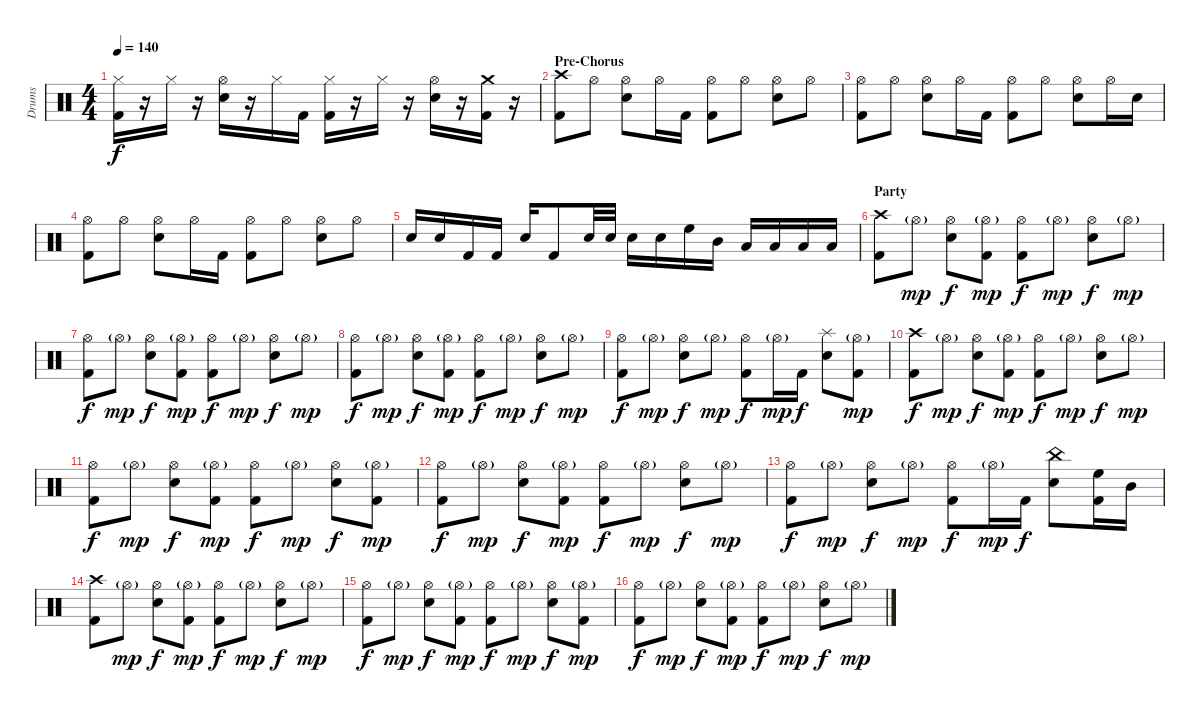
\track ("Drums" "Drums") {instrument percussion}
\staff {score}
\articulation defaults
\ts (4 4)
\tempo 140
\clef neutral
\ks c
("Hi-Hat (closed)" "Kick (hit) 2").16{dy f} r.16 "Hi-Hat (closed)".16 r.16 ("Hi-Hat (open)" "Electric Snare (hit)").16 r.16 "Hi-Hat (closed)".16 "Kick (hit) 2".16 ("Hi-Hat (closed)" "Kick (hit) 2").16 r.16 "Hi-Hat (closed)".16 r.16 ("Hi-Hat (open)" "Electric Snare (hit)").16 r.16 ("Crash medium (hit)" "Kick (hit) 2").16 r.16 |
\section ("" "Pre-Chorus")
("Crash high (hit)" "Kick (hit) 2").8 "Hi-Hat (open)".8 ("Hi-Hat (open)" "Electric Snare (hit)").8 "Hi-Hat (open)".16 "Kick (hit) 2".16 ("Hi-Hat (open)" "Kick (hit) 2").8 "Hi-Hat (open)".8 ("Hi-Hat (open)" "Electric Snare (hit)").8 "Hi-Hat (open)".8 |
("Hi-Hat (open)" "Kick (hit) 2").8 "Hi-Hat (open)".8 ("Hi-Hat (open)" "Electric Snare (hit)").8 "Hi-Hat (open)".16 "Kick (hit) 2".16 ("Hi-Hat (open)" "Kick (hit) 2").8 "Hi-Hat (open)".8 ("Hi-Hat (open)" "Electric Snare (hit)").8 "Hi-Hat (open)".16 "Electric Snare (hit)".16 |
("Hi-Hat (open)" "Kick (hit) 2").8 "Hi-Hat (open)".8 ("Hi-Hat (open)" "Electric Snare (hit)").8 "Hi-Hat (open)".16 "Kick (hit) 2".16 ("Hi-Hat (open)" "Kick (hit) 2").8 "Hi-Hat (open)".8 ("Hi-Hat (open)" "Electric Snare (hit)").8 "Hi-Hat (open)".8 |
"Electric Snare (hit)".16 "Electric Snare (hit)".16 "Kick (hit) 2".16 "Kick (hit) 2".16 "Electric Snare (hit)".16 "Kick (hit) 2".8 "Electric Snare (hit)".32 "Electric Snare (hit)".32 "Electric Snare (hit)".16 "Electric Snare (hit)".16 "High Floor Tom (hit)".16 "Mid Tom (hit)".16 "Low Tom (hit)".16 "Low Tom (hit)".16 "Low Floor Tom (hit)".16 "Low Floor Tom (hit)".16 |
\section ("" "Party")
("Crash high (hit)" "Kick (hit) 2").8 "Hi-Hat (open)"{g}.8{dy mp} ("Hi-Hat (open)" "Electric Snare (hit)").8{dy f} ("Hi-Hat (open)"{g} "Kick (hit) 2").8{dy mp} ("Hi-Hat (open)" "Kick (hit) 2").8{dy f} "Hi-Hat (open)"{g}.8{dy mp} ("Hi-Hat (open)" "Electric Snare (hit)").8{dy f} "Hi-Hat (open)"{g}.8{dy mp} |
("Hi-Hat (open)" "Kick (hit) 2").8{dy f} "Hi-Hat (open)"{g}.8{dy mp} ("Hi-Hat (open)" "Electric Snare (hit)").8{dy f} ("Hi-Hat (open)"{g} "Kick (hit) 2").8{dy mp} ("Hi-Hat (open)" "Kick (hit) 2").8{dy f} "Hi-Hat (open)"{g}.8{dy mp} ("Hi-Hat (open)" "Electric Snare (hit)").8{dy f} "Hi-Hat (open)"{g}.8{dy mp} |
("Hi-Hat (open)" "Kick (hit) 2").8{dy f} "Hi-Hat (open)"{g}.8{dy mp} ("Hi-Hat (open)" "Electric Snare (hit)").8{dy f} ("Hi-Hat (open)"{g} "Kick (hit) 2").8{dy mp} ("Hi-Hat (open)" "Kick (hit) 2").8{dy f} "Hi-Hat (open)"{g}.8{dy mp} ("Hi-Hat (open)" "Electric Snare (hit)").8{dy f} "Hi-Hat (open)"{g}.8{dy mp} |
("Hi-Hat (open)" "Kick (hit) 2").8{dy f} "Hi-Hat (open)"{g}.8{dy mp} ("Hi-Hat (open)" "Electric Snare (hit)").8{dy f} "Hi-Hat (open)"{g}.8{dy mp} ("Hi-Hat (open)" "Kick (hit) 2").8{dy f} "Hi-Hat (open)"{g}.16{dy mp} "Kick (hit) 2".16{dy f} ("Splash (hit)" "Electric Snare (hit)").8 ("Hi-Hat (open)"{g} "Kick (hit) 2").8{dy mp} |
("Crash high (hit)" "Kick (hit) 2").8{dy f} "Hi-Hat (open)"{g}.8{dy mp} ("Hi-Hat (open)" "Electric Snare (hit)").8{dy f} ("Hi-Hat (open)"{g} "Kick (hit) 2").8{dy mp} ("Hi-Hat (open)" "Kick (hit) 2").8{dy f} "Hi-Hat (open)"{g}.8{dy mp} ("Hi-Hat (open)" "Electric Snare (hit)").8{dy f} "Hi-Hat (open)"{g}.8{dy mp} |
("Hi-Hat (open)" "Kick (hit) 2").8{dy f} "Hi-Hat (open)"{g}.8{dy mp} ("Hi-Hat (open)" "Electric Snare (hit)").8{dy f} ("Hi-Hat (open)"{g} "Kick (hit) 2").8{dy mp} ("Hi-Hat (open)" "Kick (hit) 2").8{dy f} "Hi-Hat (open)"{g}.8{dy mp} ("Hi-Hat (open)" "Electric Snare (hit)").8{dy f} ("Hi-Hat (open)"{g} "Kick (hit) 2").8{dy mp} |
("Hi-Hat (open)" "Kick (hit) 2").8{dy f} "Hi-Hat (open)"{g}.8{dy mp} ("Hi-Hat (open)" "Electric Snare (hit)").8{dy f} ("Hi-Hat (open)"{g} "Kick (hit) 2").8{dy mp} ("Hi-Hat (open)" "Kick (hit) 2").8{dy f} "Hi-Hat (open)"{g}.8{dy mp} ("Hi-Hat (open)" "Electric Snare (hit)").8{dy f} "Hi-Hat (open)"{g}.8{dy mp} |
("Hi-Hat (open)" "Kick (hit) 2").8{dy f} "Hi-Hat (open)"{g}.8{dy mp} ("Hi-Hat (open)" "Electric Snare (hit)").8{dy f} "Hi-Hat (open)"{g}.8{dy mp} ("Hi-Hat (open)" "Kick (hit) 2").8{dy f} "Hi-Hat (open)"{g}.16{dy mp} "Kick (hit) 2".16{dy f} ("China (hit)" "Electric Snare (hit)").8 ("High Floor Tom (hit)" "Kick (hit) 2").16 "Mid Tom (hit)".16 |
("Crash high (hit)" "Kick (hit) 2").8 "Hi-Hat (open)"{g}.8{dy mp} ("Hi-Hat (open)" "Electric Snare (hit)").8{dy f} ("Hi-Hat (open)"{g} "Kick (hit) 2").8{dy mp} ("Hi-Hat (open)" "Kick (hit) 2").8{dy f} "Hi-Hat (open)"{g}.8{dy mp} ("Hi-Hat (open)" "Electric Snare (hit)").8{dy f} "Hi-Hat (open)"{g}.8{dy mp} |
("Hi-Hat (open)" "Kick (hit) 2").8{dy f} "Hi-Hat (open)"{g}.8{dy mp} ("Hi-Hat (open)" "Electric Snare (hit)").8{dy f} ("Hi-Hat (open)"{g} "Kick (hit) 2").8{dy mp} ("Hi-Hat (open)" "Kick (hit) 2").8{dy f} "Hi-Hat (open)"{g}.8{dy mp} ("Hi-Hat (open)" "Electric Snare (hit)").8{dy f} ("Hi-Hat (open)"{g} "Kick (hit) 2").8{dy mp} |
("Hi-Hat (open)" "Kick (hit) 2").8{dy f} "Hi-Hat (open)"{g}.8{dy mp} ("Hi-Hat (open)" "Electric Snare (hit)").8{dy f} ("Hi-Hat (open)"{g} "Kick (hit) 2").8{dy mp} ("Hi-Hat (open)" "Kick (hit) 2").8{dy f} "Hi-Hat (open)"{g}.8{dy mp} ("Hi-Hat (open)" "Electric Snare (hit)").8{dy f} "Hi-Hat (open)"{g}.8{dy mp}
